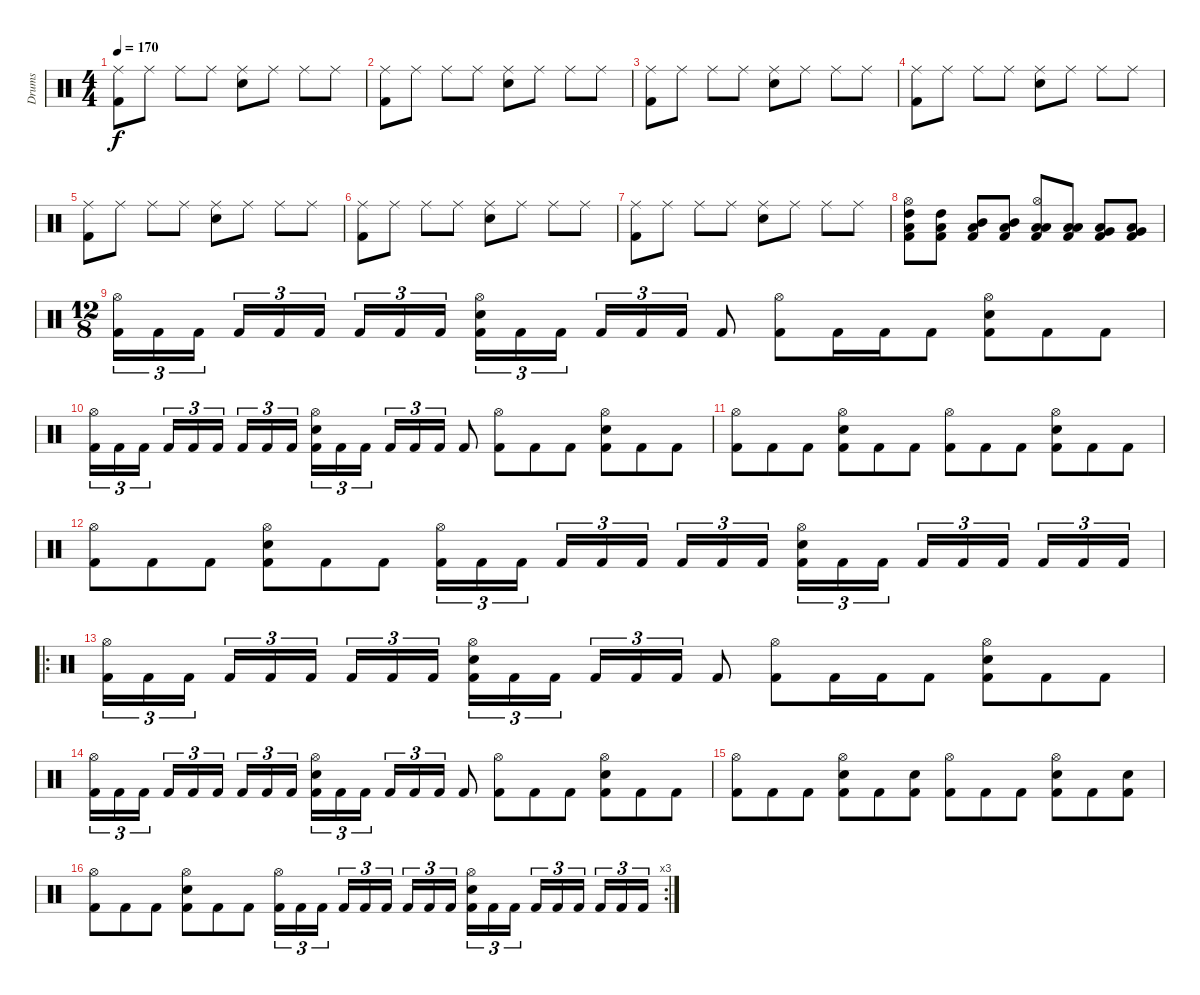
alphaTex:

\track ("Drums" "Drums") {instrument percussion}
\staff {score}
\articulation defaults
\ts (4 4)
\tempo 170
\clef neutral
\ks c
("Kick (hit) 2" "Ride (middle)").8{dy f} "Ride (middle)".8 "Ride (middle)".8 "Ride (middle)".8 ("Electric Snare (hit)" "Ride (middle)").8 "Ride (middle)".8 "Ride (middle)".8 "Ride (middle)".8 |
("Kick (hit) 2" "Ride (middle)").8 "Ride (middle)".8 "Ride (middle)".8 "Ride (middle)".8 ("Electric Snare (hit)" "Ride (middle)").8 "Ride (middle)".8 "Ride (middle)".8 "Ride (middle)".8 |
("Kick (hit) 2" "Ride (middle)").8 "Ride (middle)".8 "Ride (middle)".8 "Ride (middle)".8 ("Electric Snare (hit)" "Ride (middle)").8 "Ride (middle)".8 "Ride (middle)".8 "Ride (middle)".8 |
("Kick (hit) 2" "Ride (middle)").8 "Ride (middle)".8 "Ride (middle)".8 "Ride (middle)".8 ("Electric Snare (hit)" "Ride (middle)").8 "Ride (middle)".8 "Ride (middle)".8 "Ride (middle)".8 |
("Kick (hit) 2" "Ride (middle)").8 "Ride (middle)".8 "Ride (middle)".8 "Ride (middle)".8 ("Electric Snare (hit)" "Ride (middle)").8 "Ride (middle)".8 "Ride (middle)".8 "Ride (middle)".8 |
("Kick (hit) 2" "Ride (middle)").8 "Ride (middle)".8 "Ride (middle)".8 "Ride (middle)".8 ("Electric Snare (hit)" "Ride (middle)").8 "Ride (middle)".8 "Ride (middle)".8 "Ride (middle)".8 |
("Kick (hit) 2" "Ride (middle)").8 "Ride (middle)".8 "Ride (middle)".8 "Ride (middle)".8 ("Electric Snare (hit)" "Ride (middle)").8 "Ride (middle)".8 "Ride (middle)".8 "Ride (middle)".8 |
("Kick (hit) 2" "High Tom (hit)" "Low Floor Tom (hit)" "Hi-Hat (open)").8 ("Kick (hit) 2" "High Tom (hit)" "Low Floor Tom (hit)").8 ("Kick (hit) 2" "Mid Tom (hit)" "Low Floor Tom (hit)").8 ("Kick (hit) 2" "Mid Tom (hit)" "Low Floor Tom (hit)").8 ("Kick (hit) 2" "Low Tom (hit)" "Low Floor Tom (hit)" "Hi-Hat (open)").8 ("Kick (hit) 2" "Low Tom (hit)" "Low Floor Tom (hit)").8 ("Kick (hit) 2" "Very Low Tom (hit)" "Low Floor Tom (hit)").8 ("Kick (hit) 2" "Very Low Tom (hit)" "Low Floor Tom (hit)").8 |
\ts (12 8)
("Kick (hit) 2" "Hi-Hat (open)").16{tu (3 2)} "Kick (hit) 2".16{tu (3 2)} "Kick (hit) 2".16{tu (3 2)} "Kick (hit) 2".16{tu (3 2)} "Kick (hit) 2".16{tu (3 2)} "Kick (hit) 2".16{tu (3 2)} "Kick (hit) 2".16{tu (3 2)} "Kick (hit) 2".16{tu (3 2)} "Kick (hit) 2".16{tu (3 2)} ("Kick (hit) 2" "Electric Snare (hit)" "Hi-Hat (open)").16{tu (3 2)} "Kick (hit) 2".16{tu (3 2)} "Kick (hit) 2".16{tu (3 2)} "Kick (hit) 2".16{tu (3 2)} "Kick (hit) 2".16{tu (3 2)} "Kick (hit) 2".16{tu (3 2)} "Kick (hit) 2".8 ("Kick (hit) 2" "Hi-Hat (open)").8 "Kick (hit) 2".16 "Kick (hit) 2".16 "Kick (hit) 2".8 ("Kick (hit) 2" "Electric Snare (hit)" "Hi-Hat (open)").8 "Kick (hit) 2".8 "Kick (hit) 2".8 |
("Kick (hit) 2" "Hi-Hat (open)").16{tu (3 2)} "Kick (hit) 2".16{tu (3 2)} "Kick (hit) 2".16{tu (3 2)} "Kick (hit) 2".16{tu (3 2)} "Kick (hit) 2".16{tu (3 2)} "Kick (hit) 2".16{tu (3 2)} "Kick (hit) 2".16{tu (3 2)} "Kick (hit) 2".16{tu (3 2)} "Kick (hit) 2".16{tu (3 2)} ("Kick (hit) 2" "Electric Snare (hit)" "Hi-Hat (open)").16{tu (3 2)} "Kick (hit) 2".16{tu (3 2)} "Kick (hit) 2".16{tu (3 2)} "Kick (hit) 2".16{tu (3 2)} "Kick (hit) 2".16{tu (3 2)} "Kick (hit) 2".16{tu (3 2)} "Kick (hit) 2".8 ("Kick (hit) 2" "Hi-Hat (open)").8 "Kick (hit) 2".8 "Kick (hit) 2".8 ("Kick (hit) 2" "Hi-Hat (open)" "Electric Snare (hit)").8 "Kick (hit) 2".8 "Kick (hit) 2".8 |
("Kick (hit) 2" "Hi-Hat (open)").8 "Kick (hit) 2".8 "Kick (hit) 2".8 ("Kick (hit) 2" "Electric Snare (hit)" "Hi-Hat (open)").8 "Kick (hit) 2".8 "Kick (hit) 2".8 ("Kick (hit) 2" "Hi-Hat (open)").8 "Kick (hit) 2".8 "Kick (hit) 2".8 ("Kick (hit) 2" "Electric Snare (hit)" "Hi-Hat (open)").8 "Kick (hit) 2".8 "Kick (hit) 2".8 |
("Kick (hit) 2" "Hi-Hat (open)").8 "Kick (hit) 2".8 "Kick (hit) 2".8 ("Kick (hit) 2" "Electric Snare (hit)" "Hi-Hat (open)").8 "Kick (hit) 2".8 "Kick (hit) 2".8 ("Kick (hit) 2" "Hi-Hat (open)").16{tu (3 2)} "Kick (hit) 2".16{tu (3 2)} "Kick (hit) 2".16{tu (3 2)} "Kick (hit) 2".16{tu (3 2)} "Kick (hit) 2".16{tu (3 2)} "Kick (hit) 2".16{tu (3 2)} "Kick (hit) 2".16{tu (3 2)} "Kick (hit) 2".16{tu (3 2)} "Kick (hit) 2".16{tu (3 2)} ("Kick (hit) 2" "Electric Snare (hit)" "Hi-Hat (open)").16{tu (3 2)} "Kick (hit) 2".16{tu (3 2)} "Kick (hit) 2".16{tu (3 2)} "Kick (hit) 2".16{tu (3 2)} "Kick (hit) 2".16{tu (3 2)} "Kick (hit) 2".16{tu (3 2)} "Kick (hit) 2".16{tu (3 2)} "Kick (hit) 2".16{tu (3 2)} "Kick (hit) 2".16{tu (3 2)} |
\ro
("Kick (hit) 2" "Hi-Hat (open)").16{tu (3 2)} "Kick (hit) 2".16{tu (3 2)} "Kick (hit) 2".16{tu (3 2)} "Kick (hit) 2".16{tu (3 2)} "Kick (hit) 2".16{tu (3 2)} "Kick (hit) 2".16{tu (3 2)} "Kick (hit) 2".16{tu (3 2)} "Kick (hit) 2".16{tu (3 2)} "Kick (hit) 2".16{tu (3 2)} ("Kick (hit) 2" "Electric Snare (hit)" "Hi-Hat (open)").16{tu (3 2)} "Kick (hit) 2".16{tu (3 2)} "Kick (hit) 2".16{tu (3 2)} "Kick (hit) 2".16{tu (3 2)} "Kick (hit) 2".16{tu (3 2)} "Kick (hit) 2".16{tu (3 2)} "Kick (hit) 2".8 ("Kick (hit) 2" "Hi-Hat (open)").8 "Kick (hit) 2".16 "Kick (hit) 2".16 "Kick (hit) 2".8 ("Kick (hit) 2" "Electric Snare (hit)" "Hi-Hat (open)").8 "Kick (hit) 2".8 "Kick (hit) 2".8 |
("Kick (hit) 2" "Hi-Hat (open)").16{tu (3 2)} "Kick (hit) 2".16{tu (3 2)} "Kick (hit) 2".16{tu (3 2)} "Kick (hit) 2".16{tu (3 2)} "Kick (hit) 2".16{tu (3 2)} "Kick (hit) 2".16{tu (3 2)} "Kick (hit) 2".16{tu (3 2)} "Kick (hit) 2".16{tu (3 2)} "Kick (hit) 2".16{tu (3 2)} ("Kick (hit) 2" "Electric Snare (hit)" "Hi-Hat (open)").16{tu (3 2)} "Kick (hit) 2".16{tu (3 2)} "Kick (hit) 2".16{tu (3 2)} "Kick (hit) 2".16{tu (3 2)} "Kick (hit) 2".16{tu (3 2)} "Kick (hit) 2".16{tu (3 2)} "Kick (hit) 2".8 ("Kick (hit) 2" "Hi-Hat (open)").8 "Kick (hit) 2".8 "Kick (hit) 2".8 ("Kick (hit) 2" "Hi-Hat (open)" "Electric Snare (hit)").8 "Kick (hit) 2".8 "Kick (hit) 2".8 |
("Kick (hit) 2" "Hi-Hat (open)").8 "Kick (hit) 2".8 "Kick (hit) 2".8 ("Kick (hit) 2" "Electric Snare (hit)" "Hi-Hat (open)").8 "Kick (hit) 2".8 ("Kick (hit) 2" "Electric Snare (hit)").8 ("Kick (hit) 2" "Hi-Hat (open)").8 "Kick (hit) 2".8 "Kick (hit) 2".8 ("Kick (hit) 2" "Electric Snare (hit)" "Hi-Hat (open)").8 "Kick (hit) 2".8 ("Kick (hit) 2" "Electric Snare (hit)").8 |
\rc 3
("Kick (hit) 2" "Hi-Hat (open)").8 "Kick (hit) 2".8 "Kick (hit) 2".8 ("Kick (hit) 2" "Electric Snare (hit)" "Hi-Hat (open)").8 "Kick (hit) 2".8 "Kick (hit) 2".8 ("Kick (hit) 2" "Hi-Hat (open)").16{tu (3 2)} "Kick (hit) 2".16{tu (3 2)} "Kick (hit) 2".16{tu (3 2)} "Kick (hit) 2".16{tu (3 2)} "Kick (hit) 2".16{tu (3 2)} "Kick (hit) 2".16{tu (3 2)} "Kick (hit) 2".16{tu (3 2)} "Kick (hit) 2".16{tu (3 2)} "Kick (hit) 2".16{tu (3 2)} ("Kick (hit) 2" "Electric Snare (hit)" "Hi-Hat (open)").16{tu (3 2)} "Kick (hit) 2".16{tu (3 2)} "Kick (hit) 2".16{tu (3 2)} "Kick (hit) 2".16{tu (3 2)} "Kick (hit) 2".16{tu (3 2)} "Kick (hit) 2".16{tu (3 2)} "Kick (hit) 2".16{tu (3 2)} "Kick (hit) 2".16{tu (3 2)} "Kick (hit) 2".16{tu (3 2)}
